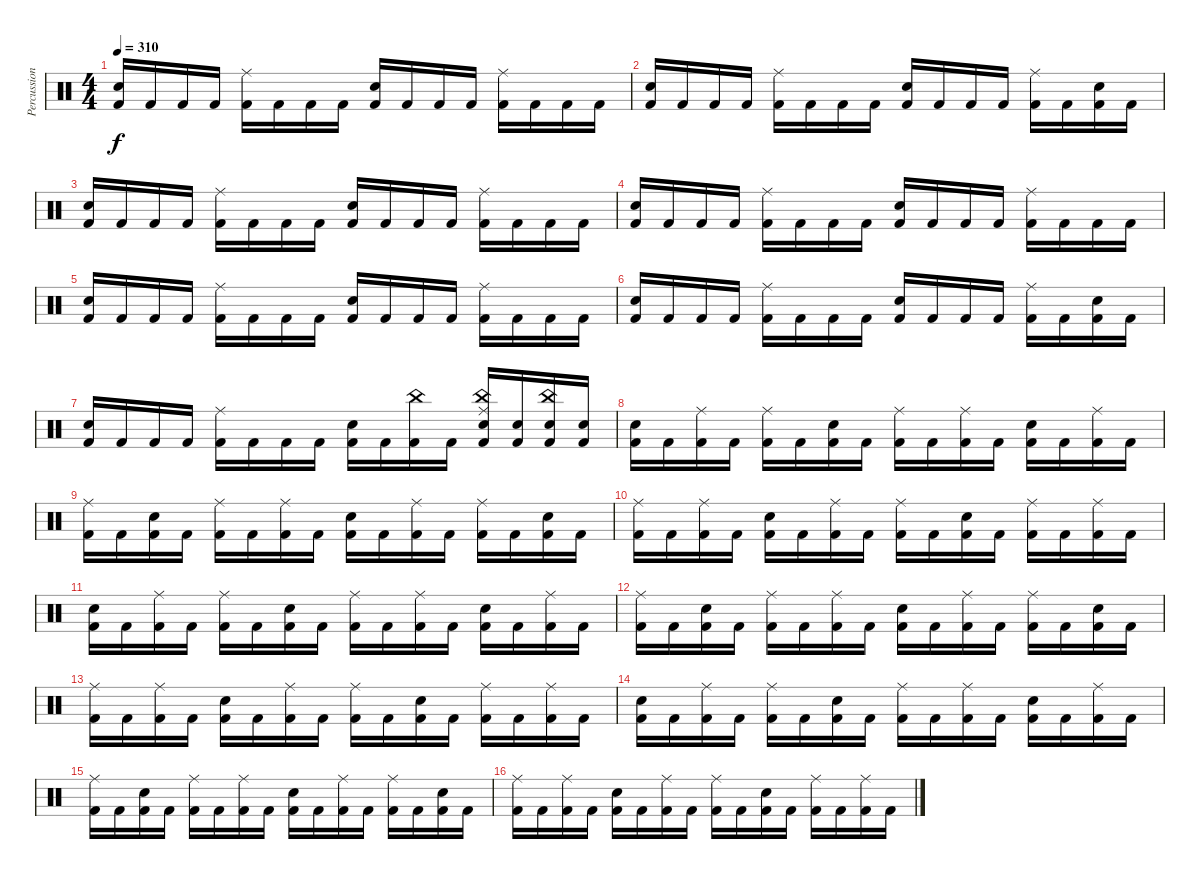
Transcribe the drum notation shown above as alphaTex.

\track ("Percussions" "Percussion") {instrument percussion}
\staff {score}
\articulation defaults
\ts (4 4)
\tempo 310
\clef neutral
\ks c
("Snare (hit) 2" "Kick (hit) 2").16{dy f} "Kick (hit) 2".16 "Kick (hit) 2".16 "Kick (hit) 2".16 ("Ride (middle)" "Kick (hit) 2").16 "Kick (hit) 2".16 "Kick (hit) 2".16 "Kick (hit) 2".16 ("Snare (hit) 2" "Kick (hit) 2").16 "Kick (hit) 2".16 "Kick (hit) 2".16 "Kick (hit) 2".16 ("Ride (middle)" "Kick (hit) 2").16 "Kick (hit) 2".16 "Kick (hit) 2".16 "Kick (hit) 2".16 |
("Snare (hit) 2" "Kick (hit) 2").16 "Kick (hit) 2".16 "Kick (hit) 2".16 "Kick (hit) 2".16 ("Ride (middle)" "Kick (hit) 2").16 "Kick (hit) 2".16 "Kick (hit) 2".16 "Kick (hit) 2".16 ("Snare (hit) 2" "Kick (hit) 2").16 "Kick (hit) 2".16 "Kick (hit) 2".16 "Kick (hit) 2".16 ("Ride (middle)" "Kick (hit) 2").16 "Kick (hit) 2".16 ("Snare (hit) 2" "Kick (hit) 2").16 "Kick (hit) 2".16 |
("Snare (hit) 2" "Kick (hit) 2").16 "Kick (hit) 2".16 "Kick (hit) 2".16 "Kick (hit) 2".16 ("Ride (middle)" "Kick (hit) 2").16 "Kick (hit) 2".16 "Kick (hit) 2".16 "Kick (hit) 2".16 ("Snare (hit) 2" "Kick (hit) 2").16 "Kick (hit) 2".16 "Kick (hit) 2".16 "Kick (hit) 2".16 ("Ride (middle)" "Kick (hit) 2").16 "Kick (hit) 2".16 "Kick (hit) 2".16 "Kick (hit) 2".16 |
("Snare (hit) 2" "Kick (hit) 2").16 "Kick (hit) 2".16 "Kick (hit) 2".16 "Kick (hit) 2".16 ("Ride (middle)" "Kick (hit) 2").16 "Kick (hit) 2".16 "Kick (hit) 2".16 "Kick (hit) 2".16 ("Snare (hit) 2" "Kick (hit) 2").16 "Kick (hit) 2".16 "Kick (hit) 2".16 "Kick (hit) 2".16 ("Ride (middle)" "Kick (hit) 2").16 "Kick (hit) 2".16 "Kick (hit) 2".16 "Kick (hit) 2".16 |
("Snare (hit) 2" "Kick (hit) 2").16 "Kick (hit) 2".16 "Kick (hit) 2".16 "Kick (hit) 2".16 ("Ride (middle)" "Kick (hit) 2").16 "Kick (hit) 2".16 "Kick (hit) 2".16 "Kick (hit) 2".16 ("Snare (hit) 2" "Kick (hit) 2").16 "Kick (hit) 2".16 "Kick (hit) 2".16 "Kick (hit) 2".16 ("Ride (middle)" "Kick (hit) 2").16 "Kick (hit) 2".16 "Kick (hit) 2".16 "Kick (hit) 2".16 |
("Snare (hit) 2" "Kick (hit) 2").16 "Kick (hit) 2".16 "Kick (hit) 2".16 "Kick (hit) 2".16 ("Ride (middle)" "Kick (hit) 2").16 "Kick (hit) 2".16 "Kick (hit) 2".16 "Kick (hit) 2".16 ("Snare (hit) 2" "Kick (hit) 2").16 "Kick (hit) 2".16 "Kick (hit) 2".16 "Kick (hit) 2".16 ("Ride (middle)" "Kick (hit) 2").16 "Kick (hit) 2".16 ("Snare (hit) 2" "Kick (hit) 2").16 "Kick (hit) 2".16 |
("Snare (hit) 2" "Kick (hit) 2").16 "Kick (hit) 2".16 "Kick (hit) 2".16 "Kick (hit) 2".16 ("Ride (middle)" "Kick (hit) 2").16 "Kick (hit) 2".16 "Kick (hit) 2".16 "Kick (hit) 2".16 ("Snare (hit) 2" "Kick (hit) 2").16 "Kick (hit) 2".16 ("China (hit)" "Kick (hit) 2").16 "Kick (hit) 2".16 ("Electric Snare (hit)" "China (hit)" "Ride (middle)" "Kick (hit) 2").16 ("Electric Snare (hit)" "Kick (hit) 2").16 ("Electric Snare (hit)" "China (hit)" "Kick (hit) 2").16 ("Electric Snare (hit)" "Kick (hit) 2").16 |
("Snare (hit) 2" "Kick (hit) 2").16 "Kick (hit) 2".16 ("Ride (middle)" "Kick (hit) 2").16 "Kick (hit) 2".16 ("Ride (middle)" "Kick (hit) 2").16 "Kick (hit) 2".16 ("Snare (hit) 2" "Kick (hit) 2").16 "Kick (hit) 2".16 ("Ride (middle)" "Kick (hit) 2").16 "Kick (hit) 2".16 ("Ride (middle)" "Kick (hit) 2").16 "Kick (hit) 2".16 ("Snare (hit) 2" "Kick (hit) 2").16 "Kick (hit) 2".16 ("Ride (middle)" "Kick (hit) 2").16 "Kick (hit) 2".16 |
("Ride (middle)" "Kick (hit) 2").16 "Kick (hit) 2".16 ("Snare (hit) 2" "Kick (hit) 2").16 "Kick (hit) 2".16 ("Ride (middle)" "Kick (hit) 2").16 "Kick (hit) 2".16 ("Ride (middle)" "Kick (hit) 2").16 "Kick (hit) 2".16 ("Snare (hit) 2" "Kick (hit) 2").16 "Kick (hit) 2".16 ("Ride (middle)" "Kick (hit) 2").16 "Kick (hit) 2".16 ("Ride (middle)" "Kick (hit) 2").16 "Kick (hit) 2".16 ("Snare (hit) 2" "Kick (hit) 2").16 "Kick (hit) 2".16 |
("Ride (middle)" "Kick (hit) 2").16 "Kick (hit) 2".16 ("Ride (middle)" "Kick (hit) 2").16 "Kick (hit) 2".16 ("Snare (hit) 2" "Kick (hit) 2").16 "Kick (hit) 2".16 ("Ride (middle)" "Kick (hit) 2").16 "Kick (hit) 2".16 ("Ride (middle)" "Kick (hit) 2").16 "Kick (hit) 2".16 ("Snare (hit) 2" "Kick (hit) 2").16 "Kick (hit) 2".16 ("Ride (middle)" "Kick (hit) 2").16 "Kick (hit) 2".16 ("Ride (middle)" "Kick (hit) 2").16 "Kick (hit) 2".16 |
("Snare (hit) 2" "Kick (hit) 2").16 "Kick (hit) 2".16 ("Ride (middle)" "Kick (hit) 2").16 "Kick (hit) 2".16 ("Ride (middle)" "Kick (hit) 2").16 "Kick (hit) 2".16 ("Snare (hit) 2" "Kick (hit) 2").16 "Kick (hit) 2".16 ("Ride (middle)" "Kick (hit) 2").16 "Kick (hit) 2".16 ("Ride (middle)" "Kick (hit) 2").16 "Kick (hit) 2".16 ("Snare (hit) 2" "Kick (hit) 2").16 "Kick (hit) 2".16 ("Ride (middle)" "Kick (hit) 2").16 "Kick (hit) 2".16 |
("Ride (middle)" "Kick (hit) 2").16 "Kick (hit) 2".16 ("Snare (hit) 2" "Kick (hit) 2").16 "Kick (hit) 2".16 ("Ride (middle)" "Kick (hit) 2").16 "Kick (hit) 2".16 ("Ride (middle)" "Kick (hit) 2").16 "Kick (hit) 2".16 ("Snare (hit) 2" "Kick (hit) 2").16 "Kick (hit) 2".16 ("Ride (middle)" "Kick (hit) 2").16 "Kick (hit) 2".16 ("Ride (middle)" "Kick (hit) 2").16 "Kick (hit) 2".16 ("Snare (hit) 2" "Kick (hit) 2").16 "Kick (hit) 2".16 |
("Ride (middle)" "Kick (hit) 2").16 "Kick (hit) 2".16 ("Ride (middle)" "Kick (hit) 2").16 "Kick (hit) 2".16 ("Snare (hit) 2" "Kick (hit) 2").16 "Kick (hit) 2".16 ("Ride (middle)" "Kick (hit) 2").16 "Kick (hit) 2".16 ("Ride (middle)" "Kick (hit) 2").16 "Kick (hit) 2".16 ("Snare (hit) 2" "Kick (hit) 2").16 "Kick (hit) 2".16 ("Ride (middle)" "Kick (hit) 2").16 "Kick (hit) 2".16 ("Ride (middle)" "Kick (hit) 2").16 "Kick (hit) 2".16 |
("Snare (hit) 2" "Kick (hit) 2").16 "Kick (hit) 2".16 ("Ride (middle)" "Kick (hit) 2").16 "Kick (hit) 2".16 ("Ride (middle)" "Kick (hit) 2").16 "Kick (hit) 2".16 ("Snare (hit) 2" "Kick (hit) 2").16 "Kick (hit) 2".16 ("Ride (middle)" "Kick (hit) 2").16 "Kick (hit) 2".16 ("Ride (middle)" "Kick (hit) 2").16 "Kick (hit) 2".16 ("Snare (hit) 2" "Kick (hit) 2").16 "Kick (hit) 2".16 ("Ride (middle)" "Kick (hit) 2").16 "Kick (hit) 2".16 |
("Ride (middle)" "Kick (hit) 2").16 "Kick (hit) 2".16 ("Snare (hit) 2" "Kick (hit) 2").16 "Kick (hit) 2".16 ("Ride (middle)" "Kick (hit) 2").16 "Kick (hit) 2".16 ("Ride (middle)" "Kick (hit) 2").16 "Kick (hit) 2".16 ("Snare (hit) 2" "Kick (hit) 2").16 "Kick (hit) 2".16 ("Ride (middle)" "Kick (hit) 2").16 "Kick (hit) 2".16 ("Ride (middle)" "Kick (hit) 2").16 "Kick (hit) 2".16 ("Snare (hit) 2" "Kick (hit) 2").16 "Kick (hit) 2".16 |
("Ride (middle)" "Kick (hit) 2").16 "Kick (hit) 2".16 ("Ride (middle)" "Kick (hit) 2").16 "Kick (hit) 2".16 ("Snare (hit) 2" "Kick (hit) 2").16 "Kick (hit) 2".16 ("Ride (middle)" "Kick (hit) 2").16 "Kick (hit) 2".16 ("Ride (middle)" "Kick (hit) 2").16 "Kick (hit) 2".16 ("Snare (hit) 2" "Kick (hit) 2").16 "Kick (hit) 2".16 ("Ride (middle)" "Kick (hit) 2").16 "Kick (hit) 2".16 ("Ride (middle)" "Kick (hit) 2").16 "Kick (hit) 2".16
